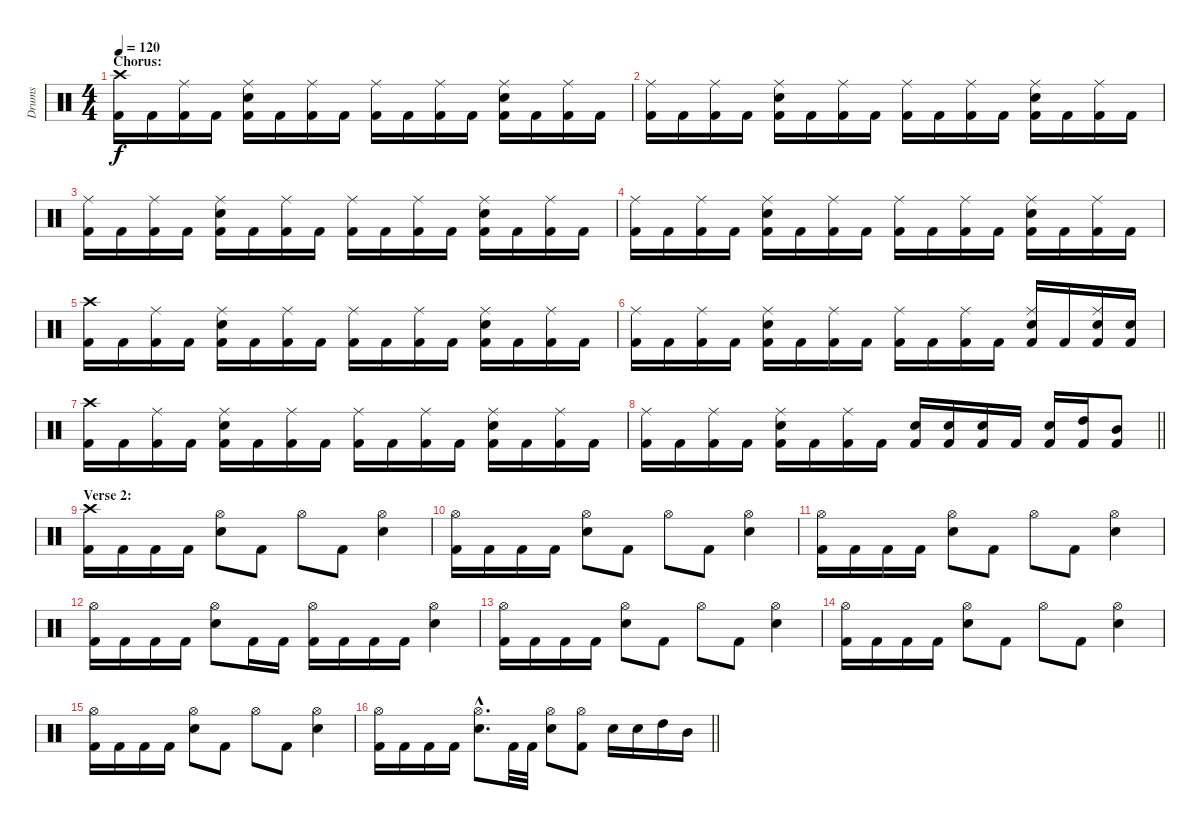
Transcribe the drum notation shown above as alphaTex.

\track ("Drums" "Drums") {instrument percussion}
\staff {score}
\articulation defaults
\ts (4 4)
\section ("" "Chorus:")
\tempo 120
\clef neutral
\ks c
("Crash high (hit)" "Kick (hit) 2").16{dy f} "Kick (hit) 2".16 ("Ride (middle)" "Kick (hit) 2").16 "Kick (hit) 2".16 ("Ride (middle)" "Electric Snare (hit)" "Kick (hit) 2").16 "Kick (hit) 2".16 ("Ride (middle)" "Kick (hit) 2").16 "Kick (hit) 2".16 ("Ride (middle)" "Kick (hit) 2").16 "Kick (hit) 2".16 ("Ride (middle)" "Kick (hit) 2").16 "Kick (hit) 2".16 ("Ride (middle)" "Electric Snare (hit)" "Kick (hit) 2").16 "Kick (hit) 2".16 ("Ride (middle)" "Kick (hit) 2").16 "Kick (hit) 2".16 |
("Ride (middle)" "Kick (hit) 2").16 "Kick (hit) 2".16 ("Ride (middle)" "Kick (hit) 2").16 "Kick (hit) 2".16 ("Ride (middle)" "Electric Snare (hit)" "Kick (hit) 2").16 "Kick (hit) 2".16 ("Ride (middle)" "Kick (hit) 2").16 "Kick (hit) 2".16 ("Ride (middle)" "Kick (hit) 2").16 "Kick (hit) 2".16 ("Ride (middle)" "Kick (hit) 2").16 "Kick (hit) 2".16 ("Ride (middle)" "Electric Snare (hit)" "Kick (hit) 2").16 "Kick (hit) 2".16 ("Ride (middle)" "Kick (hit) 2").16 "Kick (hit) 2".16 |
("Ride (middle)" "Kick (hit) 2").16 "Kick (hit) 2".16 ("Ride (middle)" "Kick (hit) 2").16 "Kick (hit) 2".16 ("Ride (middle)" "Electric Snare (hit)" "Kick (hit) 2").16 "Kick (hit) 2".16 ("Ride (middle)" "Kick (hit) 2").16 "Kick (hit) 2".16 ("Ride (middle)" "Kick (hit) 2").16 "Kick (hit) 2".16 ("Ride (middle)" "Kick (hit) 2").16 "Kick (hit) 2".16 ("Ride (middle)" "Electric Snare (hit)" "Kick (hit) 2").16 "Kick (hit) 2".16 ("Ride (middle)" "Kick (hit) 2").16 "Kick (hit) 2".16 |
("Ride (middle)" "Kick (hit) 2").16 "Kick (hit) 2".16 ("Ride (middle)" "Kick (hit) 2").16 "Kick (hit) 2".16 ("Ride (middle)" "Electric Snare (hit)" "Kick (hit) 2").16 "Kick (hit) 2".16 ("Ride (middle)" "Kick (hit) 2").16 "Kick (hit) 2".16 ("Ride (middle)" "Kick (hit) 2").16 "Kick (hit) 2".16 ("Ride (middle)" "Kick (hit) 2").16 "Kick (hit) 2".16 ("Ride (middle)" "Electric Snare (hit)" "Kick (hit) 2").16 "Kick (hit) 2".16 ("Ride (middle)" "Kick (hit) 2").16 "Kick (hit) 2".16 |
("Crash high (hit)" "Kick (hit) 2").16 "Kick (hit) 2".16 ("Ride (middle)" "Kick (hit) 2").16 "Kick (hit) 2".16 ("Ride (middle)" "Electric Snare (hit)" "Kick (hit) 2").16 "Kick (hit) 2".16 ("Ride (middle)" "Kick (hit) 2").16 "Kick (hit) 2".16 ("Ride (middle)" "Kick (hit) 2").16 "Kick (hit) 2".16 ("Ride (middle)" "Kick (hit) 2").16 "Kick (hit) 2".16 ("Ride (middle)" "Electric Snare (hit)" "Kick (hit) 2").16 "Kick (hit) 2".16 ("Ride (middle)" "Kick (hit) 2").16 "Kick (hit) 2".16 |
("Ride (middle)" "Kick (hit) 2").16 "Kick (hit) 2".16 ("Ride (middle)" "Kick (hit) 2").16 "Kick (hit) 2".16 ("Ride (middle)" "Electric Snare (hit)" "Kick (hit) 2").16 "Kick (hit) 2".16 ("Ride (middle)" "Kick (hit) 2").16 "Kick (hit) 2".16 ("Ride (middle)" "Kick (hit) 2").16 "Kick (hit) 2".16 ("Ride (middle)" "Kick (hit) 2").16 "Kick (hit) 2".16 ("Ride (middle)" "Electric Snare (hit)" "Kick (hit) 2").16 "Kick (hit) 2".16 ("Ride (middle)" "Electric Snare (hit)" "Kick (hit) 2").16 ("Electric Snare (hit)" "Kick (hit) 2").16 |
("Crash high (hit)" "Kick (hit) 2").16 "Kick (hit) 2".16 ("Ride (middle)" "Kick (hit) 2").16 "Kick (hit) 2".16 ("Ride (middle)" "Electric Snare (hit)" "Kick (hit) 2").16 "Kick (hit) 2".16 ("Ride (middle)" "Kick (hit) 2").16 "Kick (hit) 2".16 ("Ride (middle)" "Kick (hit) 2").16 "Kick (hit) 2".16 ("Ride (middle)" "Kick (hit) 2").16 "Kick (hit) 2".16 ("Ride (middle)" "Electric Snare (hit)" "Kick (hit) 2").16 "Kick (hit) 2".16 ("Ride (middle)" "Kick (hit) 2").16 "Kick (hit) 2".16 |
\barLineRight lightlight
("Ride (middle)" "Kick (hit) 2").16 "Kick (hit) 2".16 ("Ride (middle)" "Kick (hit) 2").16 "Kick (hit) 2".16 ("Ride (middle)" "Electric Snare (hit)" "Kick (hit) 2").16 "Kick (hit) 2".16 ("Ride (middle)" "Kick (hit) 2").16 "Kick (hit) 2".16 ("Electric Snare (hit)" "Kick (hit) 2").16 ("Electric Snare (hit)" "Kick (hit) 2").16 ("Electric Snare (hit)" "Kick (hit) 2").16 "Kick (hit) 2".16 ("Electric Snare (hit)" "Kick (hit) 2").16 ("High Tom (hit)" "Kick (hit) 2").16 ("Mid Tom (hit)" "Kick (hit) 2").8 |
\section ("" "Verse 2:")
("Crash high (hit)" "Kick (hit) 2").16 "Kick (hit) 2".16 "Kick (hit) 2".16 "Kick (hit) 2".16 ("Hi-Hat (open)" "Electric Snare (hit)").8 "Kick (hit) 2".8 "Hi-Hat (open)".8 "Kick (hit) 2".8 ("Hi-Hat (open)" "Electric Snare (hit)").4 |
("Hi-Hat (open)" "Kick (hit) 2").16 "Kick (hit) 2".16 "Kick (hit) 2".16 "Kick (hit) 2".16 ("Hi-Hat (open)" "Electric Snare (hit)").8 "Kick (hit) 2".8 "Hi-Hat (open)".8 "Kick (hit) 2".8 ("Hi-Hat (open)" "Electric Snare (hit)").4 |
("Hi-Hat (open)" "Kick (hit) 2").16 "Kick (hit) 2".16 "Kick (hit) 2".16 "Kick (hit) 2".16 ("Hi-Hat (open)" "Electric Snare (hit)").8 "Kick (hit) 2".8 "Hi-Hat (open)".8 "Kick (hit) 2".8 ("Hi-Hat (open)" "Electric Snare (hit)").4 |
("Hi-Hat (open)" "Kick (hit) 2").16 "Kick (hit) 2".16 "Kick (hit) 2".16 "Kick (hit) 2".16 ("Hi-Hat (open)" "Electric Snare (hit)").8 "Kick (hit) 2".16 "Kick (hit) 2".16 ("Hi-Hat (open)" "Kick (hit) 2").16 "Kick (hit) 2".16 "Kick (hit) 2".16 "Kick (hit) 2".16 ("Hi-Hat (open)" "Electric Snare (hit)").4 |
("Hi-Hat (open)" "Kick (hit) 2").16 "Kick (hit) 2".16 "Kick (hit) 2".16 "Kick (hit) 2".16 ("Hi-Hat (open)" "Electric Snare (hit)").8 "Kick (hit) 2".8 "Hi-Hat (open)".8 "Kick (hit) 2".8 ("Hi-Hat (open)" "Electric Snare (hit)").4 |
("Hi-Hat (open)" "Kick (hit) 2").16 "Kick (hit) 2".16 "Kick (hit) 2".16 "Kick (hit) 2".16 ("Hi-Hat (open)" "Electric Snare (hit)").8 "Kick (hit) 2".8 "Hi-Hat (open)".8 "Kick (hit) 2".8 ("Hi-Hat (open)" "Electric Snare (hit)").4 |
("Hi-Hat (open)" "Kick (hit) 2").16 "Kick (hit) 2".16 "Kick (hit) 2".16 "Kick (hit) 2".16 ("Hi-Hat (open)" "Electric Snare (hit)").8 "Kick (hit) 2".8 "Hi-Hat (open)".8 "Kick (hit) 2".8 ("Hi-Hat (open)" "Electric Snare (hit)").4 |
\barLineRight lightlight
("Hi-Hat (open)" "Kick (hit) 2").16 "Kick (hit) 2".16 "Kick (hit) 2".16 "Kick (hit) 2".16 ("Hi-Hat (open)"{hac} "Electric Snare (hit)"{hac}).8{d} "Kick (hit) 2".32 "Kick (hit) 2".32 ("Hi-Hat (open)" "Electric Snare (hit)").8 ("Hi-Hat (open)" "Kick (hit) 2").8 "Electric Snare (hit)".16 "Electric Snare (hit)".16 "High Tom (hit)".16 "Mid Tom (hit)".16
